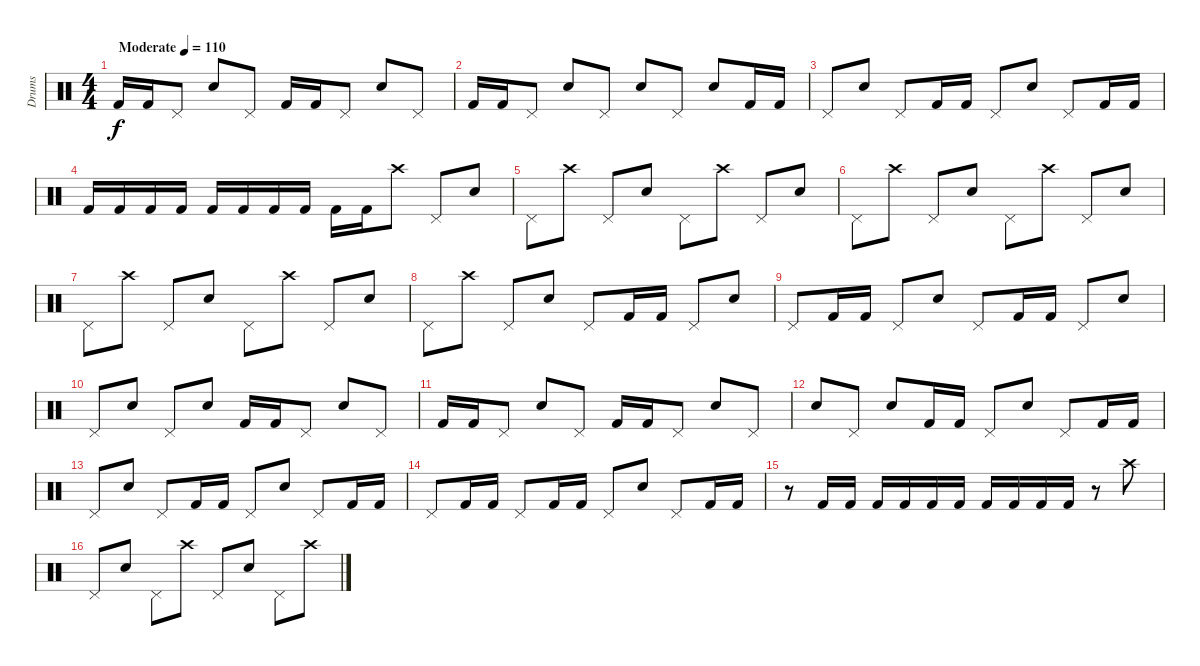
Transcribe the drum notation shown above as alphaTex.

\track ("Drums" "Drums") {instrument percussion}
\staff {score}
\articulation defaults
\ts (4 4)
\tempo (110 "Moderate")
\clef neutral
\ks c "Kick (hit) 2".16{dy f} "Kick (hit) 2".16 "Pedal Hi-Hat (hit)".8 "Electric Snare (hit)".8 "Pedal Hi-Hat (hit)".8 "Kick (hit) 2".16 "Kick (hit) 2".16 "Pedal Hi-Hat (hit)".8 "Electric Snare (hit)".8 "Pedal Hi-Hat (hit)".8
|
"Kick (hit) 2".16 "Kick (hit) 2".16 "Pedal Hi-Hat (hit)".8 "Electric Snare (hit)".8 "Pedal Hi-Hat (hit)".8 "Electric Snare (hit)".8 "Pedal Hi-Hat (hit)".8 "Electric Snare (hit)".8 "Kick (hit) 2".16 "Kick (hit) 2".16 |
"Pedal Hi-Hat (hit)".8 "Electric Snare (hit)".8 "Pedal Hi-Hat (hit)".8 "Kick (hit) 2".16 "Kick (hit) 2".16 "Pedal Hi-Hat (hit)".8 "Electric Snare (hit)".8 "Pedal Hi-Hat (hit)".8 "Kick (hit) 2".16 "Kick (hit) 2".16 |
"Kick (hit) 2".16 "Kick (hit) 2".16 "Kick (hit) 2".16 "Kick (hit) 2".16 "Kick (hit) 2".16 "Kick (hit) 2".16 "Kick (hit) 2".16 "Kick (hit) 2".16 "Kick (hit) 2".16 "Kick (hit) 2".16 "Crash high (hit)".8 "Pedal Hi-Hat (hit)".8 "Electric Snare (hit)".8 |
"Pedal Hi-Hat (hit)".8 "Crash high (hit)".8 "Pedal Hi-Hat (hit)".8 "Electric Snare (hit)".8 "Pedal Hi-Hat (hit)".8 "Crash high (hit)".8 "Pedal Hi-Hat (hit)".8 "Electric Snare (hit)".8 |
"Pedal Hi-Hat (hit)".8 "Crash high (hit)".8 "Pedal Hi-Hat (hit)".8 "Electric Snare (hit)".8 "Pedal Hi-Hat (hit)".8 "Crash high (hit)".8 "Pedal Hi-Hat (hit)".8 "Electric Snare (hit)".8 |
"Pedal Hi-Hat (hit)".8 "Crash high (hit)".8 "Pedal Hi-Hat (hit)".8 "Electric Snare (hit)".8 "Pedal Hi-Hat (hit)".8 "Crash high (hit)".8 "Pedal Hi-Hat (hit)".8 "Electric Snare (hit)".8 |
"Pedal Hi-Hat (hit)".8 "Crash high (hit)".8 "Pedal Hi-Hat (hit)".8 "Electric Snare (hit)".8 "Pedal Hi-Hat (hit)".8 "Kick (hit) 2".16 "Kick (hit) 2".16 "Pedal Hi-Hat (hit)".8 "Electric Snare (hit)".8 |
"Pedal Hi-Hat (hit)".8 "Kick (hit) 2".16 "Kick (hit) 2".16 "Pedal Hi-Hat (hit)".8 "Electric Snare (hit)".8 "Pedal Hi-Hat (hit)".8 "Kick (hit) 2".16 "Kick (hit) 2".16 "Pedal Hi-Hat (hit)".8 "Electric Snare (hit)".8 |
"Pedal Hi-Hat (hit)".8 "Electric Snare (hit)".8 "Pedal Hi-Hat (hit)".8 "Electric Snare (hit)".8 "Kick (hit) 2".16 "Kick (hit) 2".16 "Pedal Hi-Hat (hit)".8 "Electric Snare (hit)".8 "Pedal Hi-Hat (hit)".8 |
"Kick (hit) 2".16 "Kick (hit) 2".16 "Pedal Hi-Hat (hit)".8 "Electric Snare (hit)".8 "Pedal Hi-Hat (hit)".8 "Kick (hit) 2".16 "Kick (hit) 2".16 "Pedal Hi-Hat (hit)".8 "Electric Snare (hit)".8 "Pedal Hi-Hat (hit)".8 |
"Electric Snare (hit)".8 "Pedal Hi-Hat (hit)".8 "Electric Snare (hit)".8 "Kick (hit) 2".16 "Kick (hit) 2".16 "Pedal Hi-Hat (hit)".8 "Electric Snare (hit)".8 "Pedal Hi-Hat (hit)".8 "Kick (hit) 2".16 "Kick (hit) 2".16 |
"Pedal Hi-Hat (hit)".8 "Electric Snare (hit)".8 "Pedal Hi-Hat (hit)".8 "Kick (hit) 2".16 "Kick (hit) 2".16 "Pedal Hi-Hat (hit)".8 "Electric Snare (hit)".8 "Pedal Hi-Hat (hit)".8 "Kick (hit) 2".16 "Kick (hit) 2".16 |
"Pedal Hi-Hat (hit)".8 "Kick (hit) 2".16 "Kick (hit) 2".16 "Pedal Hi-Hat (hit)".8 "Kick (hit) 2".16 "Kick (hit) 2".16 "Pedal Hi-Hat (hit)".8 "Electric Snare (hit)".8 "Pedal Hi-Hat (hit)".8 "Kick (hit) 2".16 "Kick (hit) 2".16 |
r.8 "Kick (hit) 2".16 "Kick (hit) 2".16 "Kick (hit) 2".16 "Kick (hit) 2".16 "Kick (hit) 2".16 "Kick (hit) 2".16 "Kick (hit) 2".16 "Kick (hit) 2".16 "Kick (hit) 2".16 "Kick (hit) 2".16 r.8 "Crash high (hit)".8 |
"Pedal Hi-Hat (hit)".8 "Electric Snare (hit)".8 "Pedal Hi-Hat (hit)".8 "Crash high (hit)".8 "Pedal Hi-Hat (hit)".8 "Electric Snare (hit)".8 "Pedal Hi-Hat (hit)".8 "Crash high (hit)".8
